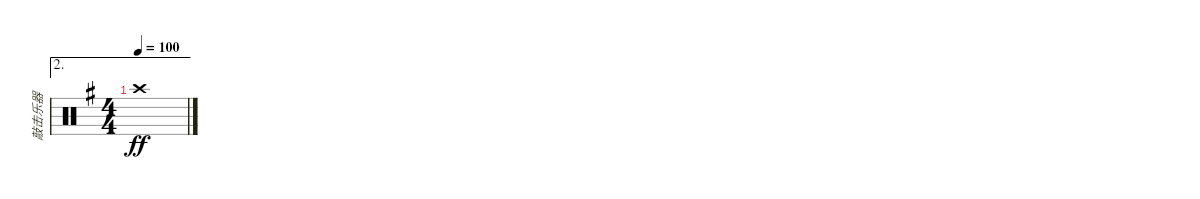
\track ("敲击乐器" "敲击乐器") {instrument percussion}
\staff {score}
\articulation defaults
\ae 2
\ts (4 4)
\tempo 100
\clef neutral
\ks g "Crash high (hit)".1{dy ff}
